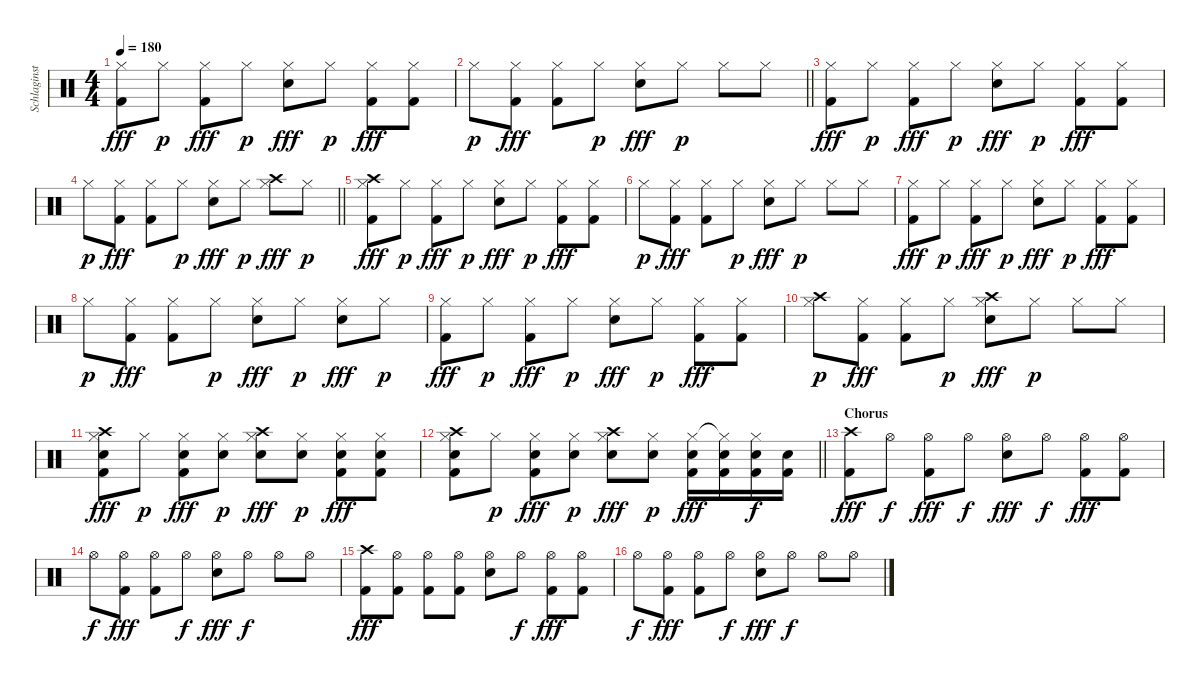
\track ("Schlaginstrumente - Auswahl" "Schlaginst") {instrument percussion}
\staff {score}
\articulation defaults
\ts (4 4)
\tempo 180
\clef neutral
\ks c
("Hi-Hat (closed)" "Kick (hit) 2").8{dy fff} "Hi-Hat (closed)".8{dy p} ("Hi-Hat (closed)" "Kick (hit) 2").8{dy fff} "Hi-Hat (closed)".8{dy p} ("Hi-Hat (closed)" "Snare (hit) 2").8{dy fff} "Hi-Hat (closed)".8{dy p} ("Hi-Hat (closed)" "Kick (hit) 2").8{dy fff} ("Hi-Hat (closed)" "Kick (hit) 2").8 |
\barLineRight lightlight "Hi-Hat (closed)".8{dy p}
("Hi-Hat (closed)" "Kick (hit) 2").8{dy fff} ("Hi-Hat (closed)" "Kick (hit) 2").8 "Hi-Hat (closed)".8{dy p} ("Hi-Hat (closed)" "Snare (hit) 2").8{dy fff} "Hi-Hat (closed)".8{dy p} "Hi-Hat (closed)".8 "Hi-Hat (closed)".8 |
("Hi-Hat (closed)" "Kick (hit) 2").8{dy fff} "Hi-Hat (closed)".8{dy p} ("Hi-Hat (closed)" "Kick (hit) 2").8{dy fff} "Hi-Hat (closed)".8{dy p} ("Hi-Hat (closed)" "Snare (hit) 2").8{dy fff} "Hi-Hat (closed)".8{dy p} ("Hi-Hat (closed)" "Kick (hit) 2").8{dy fff} ("Hi-Hat (closed)" "Kick (hit) 2").8 |
\barLineRight lightlight "Hi-Hat (closed)".8{dy p}
("Hi-Hat (closed)" "Kick (hit) 2").8{dy fff} ("Hi-Hat (closed)" "Kick (hit) 2").8 "Hi-Hat (closed)".8{dy p} ("Hi-Hat (closed)" "Snare (hit) 2").8{dy fff} "Hi-Hat (closed)".8{dy p} ("Hi-Hat (closed)" "Crash high (hit)").8{dy fff} "Hi-Hat (closed)".8{dy p} |
("Hi-Hat (closed)" "Crash high (hit)" "Kick (hit) 2").8{dy fff} "Hi-Hat (closed)".8{dy p} ("Hi-Hat (closed)" "Kick (hit) 2").8{dy fff} "Hi-Hat (closed)".8{dy p} ("Hi-Hat (closed)" "Snare (hit) 2").8{dy fff} "Hi-Hat (closed)".8{dy p} ("Hi-Hat (closed)" "Kick (hit) 2").8{dy fff} ("Hi-Hat (closed)" "Kick (hit) 2").8 |
"Hi-Hat (closed)".8{dy p} ("Hi-Hat (closed)" "Kick (hit) 2").8{dy fff} ("Hi-Hat (closed)" "Kick (hit) 2").8 "Hi-Hat (closed)".8{dy p} ("Hi-Hat (closed)" "Snare (hit) 2").8{dy fff} "Hi-Hat (closed)".8{dy p} "Hi-Hat (closed)".8 "Hi-Hat (closed)".8 |
("Hi-Hat (closed)" "Kick (hit) 2").8{dy fff} "Hi-Hat (closed)".8{dy p} ("Hi-Hat (closed)" "Kick (hit) 2").8{dy fff} "Hi-Hat (closed)".8{dy p} ("Hi-Hat (closed)" "Snare (hit) 2").8{dy fff} "Hi-Hat (closed)".8{dy p} ("Hi-Hat (closed)" "Kick (hit) 2").8{dy fff} ("Hi-Hat (closed)" "Kick (hit) 2").8 |
"Hi-Hat (closed)".8{dy p} ("Hi-Hat (closed)" "Kick (hit) 2").8{dy fff} ("Hi-Hat (closed)" "Kick (hit) 2").8 "Hi-Hat (closed)".8{dy p} ("Hi-Hat (closed)" "Snare (hit) 2").8{dy fff} "Hi-Hat (closed)".8{dy p} ("Hi-Hat (closed)" "Snare (hit) 2").8{dy fff} "Hi-Hat (closed)".8{dy p} |
("Hi-Hat (closed)" "Kick (hit) 2").8{dy fff} "Hi-Hat (closed)".8{dy p} ("Hi-Hat (closed)" "Kick (hit) 2").8{dy fff} "Hi-Hat (closed)".8{dy p} ("Hi-Hat (closed)" "Snare (hit) 2").8{dy fff} "Hi-Hat (closed)".8{dy p} ("Hi-Hat (closed)" "Kick (hit) 2").8{dy fff} ("Hi-Hat (closed)" "Kick (hit) 2").8 |
("Hi-Hat (closed)" "Crash high (hit)").8{dy p} ("Hi-Hat (closed)" "Kick (hit) 2").8{dy fff} ("Hi-Hat (closed)" "Kick (hit) 2").8 "Hi-Hat (closed)".8{dy p} ("Hi-Hat (closed)" "Crash high (hit)" "Snare (hit) 2").8{dy fff} "Hi-Hat (closed)".8{dy p} "Hi-Hat (closed)".8 "Hi-Hat (closed)".8 |
("Hi-Hat (closed)" "Crash high (hit)" "Snare (hit) 2" "Kick (hit) 2").8{dy fff} "Hi-Hat (closed)".8{dy p} ("Hi-Hat (closed)" "Snare (hit) 2" "Kick (hit) 2").8{dy fff} ("Hi-Hat (closed)" "Snare (hit) 2").8{dy p} ("Hi-Hat (closed)" "Crash high (hit)" "Snare (hit) 2").8{dy fff} ("Hi-Hat (closed)" "Snare (hit) 2").8{dy p} ("Hi-Hat (closed)" "Snare (hit) 2" "Kick (hit) 2").8{dy fff} ("Hi-Hat (closed)" "Snare (hit) 2" "Kick (hit) 2").8 |
\barLineRight lightlight
("Hi-Hat (closed)" "Crash high (hit)" "Snare (hit) 2" "Kick (hit) 2").8 "Hi-Hat (closed)".8{dy p} ("Hi-Hat (closed)" "Snare (hit) 2" "Kick (hit) 2").8{dy fff} ("Hi-Hat (closed)" "Snare (hit) 2").8{dy p} ("Hi-Hat (closed)" "Crash high (hit)" "Snare (hit) 2").8{dy fff} ("Hi-Hat (closed)" "Snare (hit) 2").8{dy p} ("Hi-Hat (closed)" "Snare (hit) 2" "Kick (hit) 2").16{dy fff} ("Hi-Hat (closed)"{t} "Snare (hit) 2" "Kick (hit) 2").16 ("Hi-Hat (closed)" "Snare (hit) 2" "Kick (hit) 2").16{dy f} ("Snare (hit) 2" "Kick (hit) 2").16 |
\section ("" "Chorus")
("Crash high (hit)" "Kick (hit) 2").8{dy fff} "Hi-Hat (open)".8{dy f} ("Hi-Hat (open)" "Kick (hit) 2").8{dy fff} "Hi-Hat (open)".8{dy f} ("Hi-Hat (open)" "Snare (hit) 2").8{dy fff} "Hi-Hat (open)".8{dy f} ("Hi-Hat (open)" "Kick (hit) 2").8{dy fff} ("Hi-Hat (open)" "Kick (hit) 2").8 |
"Hi-Hat (open)".8{dy f} ("Hi-Hat (open)" "Kick (hit) 2").8{dy fff} ("Hi-Hat (open)" "Kick (hit) 2").8 "Hi-Hat (open)".8{dy f} ("Hi-Hat (open)" "Snare (hit) 2").8{dy fff} "Hi-Hat (open)".8{dy f} "Hi-Hat (open)".8 "Hi-Hat (open)".8 |
("Crash high (hit)" "Kick (hit) 2").8{dy fff} ("Hi-Hat (open)" "Kick (hit) 2").8 ("Hi-Hat (open)" "Kick (hit) 2").8 ("Hi-Hat (open)" "Kick (hit) 2").8 ("Hi-Hat (open)" "Snare (hit) 2").8 "Hi-Hat (open)".8{dy f} ("Hi-Hat (open)" "Kick (hit) 2").8{dy fff} ("Hi-Hat (open)" "Kick (hit) 2").8 |
"Hi-Hat (open)".8{dy f} ("Hi-Hat (open)" "Kick (hit) 2").8{dy fff} ("Hi-Hat (open)" "Kick (hit) 2").8 "Hi-Hat (open)".8{dy f} ("Hi-Hat (open)" "Snare (hit) 2").8{dy fff} "Hi-Hat (open)".8{dy f} "Hi-Hat (open)".8 "Hi-Hat (open)".8
